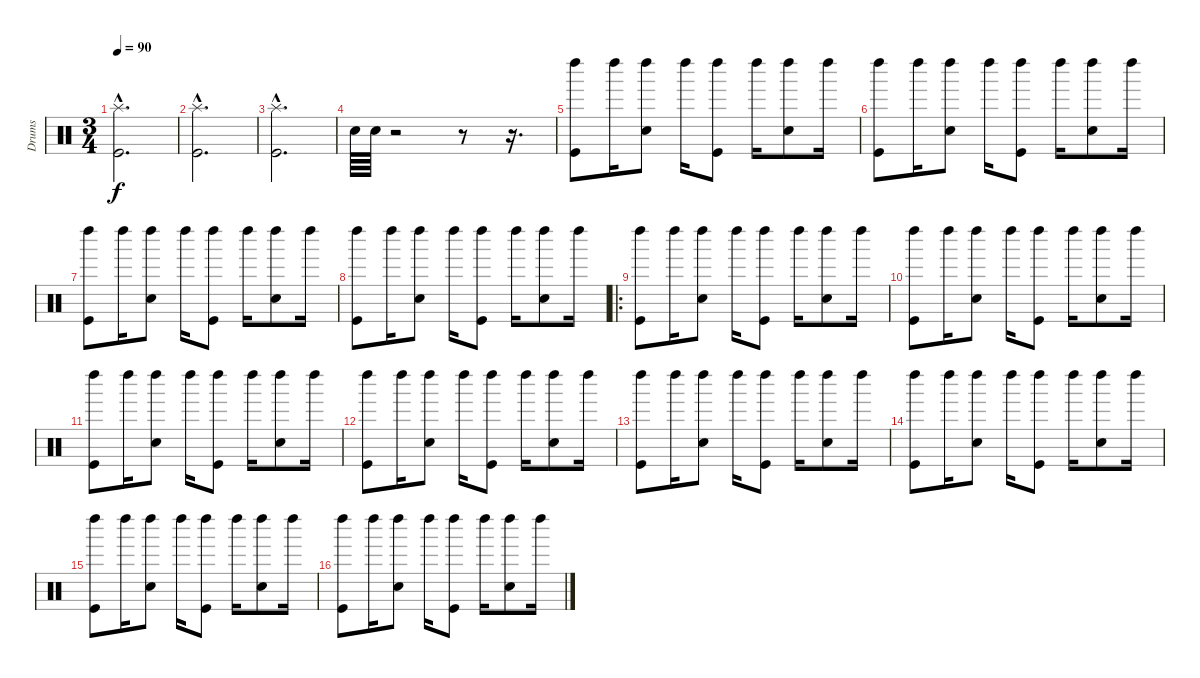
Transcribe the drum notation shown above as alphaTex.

\track ("Drums" "Drums") {instrument percussion}
\staff {score}
\articulation defaults
\ts (3 4)
\tempo 90
\clef neutral
\ks c
("Splash (hit)"{hac} "Kick (hit)"{hac}).2{d dy f} |
("Splash (hit)"{hac} "Kick (hit)"{hac}).2{d} |
("Splash (hit)"{hac} "Kick (hit)"{hac}).2{d} |
"Snare (hit) 2".64 "Snare (hit) 2".64 r.2 r.8 r.16{d} |
("Left Maraca (hit)" "Kick (hit)").8 "Left Maraca (hit)".16 ("Left Maraca (hit)" "Snare (hit) 2").8 "Left Maraca (hit)".16 ("Left Maraca (hit)" "Kick (hit)").8 "Left Maraca (hit)".16 ("Left Maraca (hit)" "Snare (hit) 2").8 "Left Maraca (hit)".16 |
("Left Maraca (hit)" "Kick (hit)").8 "Left Maraca (hit)".16 ("Left Maraca (hit)" "Snare (hit) 2").8 "Left Maraca (hit)".16 ("Left Maraca (hit)" "Kick (hit)").8 "Left Maraca (hit)".16 ("Left Maraca (hit)" "Snare (hit) 2").8 "Left Maraca (hit)".16 |
("Left Maraca (hit)" "Kick (hit)").8 "Left Maraca (hit)".16 ("Left Maraca (hit)" "Snare (hit) 2").8 "Left Maraca (hit)".16 ("Left Maraca (hit)" "Kick (hit)").8 "Left Maraca (hit)".16 ("Left Maraca (hit)" "Snare (hit) 2").8 "Left Maraca (hit)".16 |
("Left Maraca (hit)" "Kick (hit)").8 "Left Maraca (hit)".16 ("Left Maraca (hit)" "Snare (hit) 2").8 "Left Maraca (hit)".16 ("Left Maraca (hit)" "Kick (hit)").8 "Left Maraca (hit)".16 ("Left Maraca (hit)" "Snare (hit) 2").8 "Left Maraca (hit)".16 |
\ro
("Left Maraca (hit)" "Kick (hit)").8 "Left Maraca (hit)".16 ("Left Maraca (hit)" "Snare (hit) 2").8 "Left Maraca (hit)".16 ("Left Maraca (hit)" "Kick (hit)").8 "Left Maraca (hit)".16 ("Left Maraca (hit)" "Snare (hit) 2").8 "Left Maraca (hit)".16 |
("Left Maraca (hit)" "Kick (hit)").8 "Left Maraca (hit)".16 ("Left Maraca (hit)" "Snare (hit) 2").8 "Left Maraca (hit)".16 ("Left Maraca (hit)" "Kick (hit)").8 "Left Maraca (hit)".16 ("Left Maraca (hit)" "Snare (hit) 2").8 "Left Maraca (hit)".16 |
("Left Maraca (hit)" "Kick (hit)").8 "Left Maraca (hit)".16 ("Left Maraca (hit)" "Snare (hit) 2").8 "Left Maraca (hit)".16 ("Left Maraca (hit)" "Kick (hit)").8 "Left Maraca (hit)".16 ("Left Maraca (hit)" "Snare (hit) 2").8 "Left Maraca (hit)".16 |
("Left Maraca (hit)" "Kick (hit)").8 "Left Maraca (hit)".16 ("Left Maraca (hit)" "Snare (hit) 2").8 "Left Maraca (hit)".16 ("Left Maraca (hit)" "Kick (hit)").8 "Left Maraca (hit)".16 ("Left Maraca (hit)" "Snare (hit) 2").8 "Left Maraca (hit)".16 |
("Left Maraca (hit)" "Kick (hit)").8 "Left Maraca (hit)".16 ("Left Maraca (hit)" "Snare (hit) 2").8 "Left Maraca (hit)".16 ("Left Maraca (hit)" "Kick (hit)").8 "Left Maraca (hit)".16 ("Left Maraca (hit)" "Snare (hit) 2").8 "Left Maraca (hit)".16 |
("Left Maraca (hit)" "Kick (hit)").8 "Left Maraca (hit)".16 ("Left Maraca (hit)" "Snare (hit) 2").8 "Left Maraca (hit)".16 ("Left Maraca (hit)" "Kick (hit)").8 "Left Maraca (hit)".16 ("Left Maraca (hit)" "Snare (hit) 2").8 "Left Maraca (hit)".16 |
("Left Maraca (hit)" "Kick (hit)").8 "Left Maraca (hit)".16 ("Left Maraca (hit)" "Snare (hit) 2").8 "Left Maraca (hit)".16 ("Left Maraca (hit)" "Kick (hit)").8 "Left Maraca (hit)".16 ("Left Maraca (hit)" "Snare (hit) 2").8 "Left Maraca (hit)".16 |
("Left Maraca (hit)" "Kick (hit)").8 "Left Maraca (hit)".16 ("Left Maraca (hit)" "Snare (hit) 2").8 "Left Maraca (hit)".16 ("Left Maraca (hit)" "Kick (hit)").8 "Left Maraca (hit)".16 ("Left Maraca (hit)" "Snare (hit) 2").8 "Left Maraca (hit)".16
